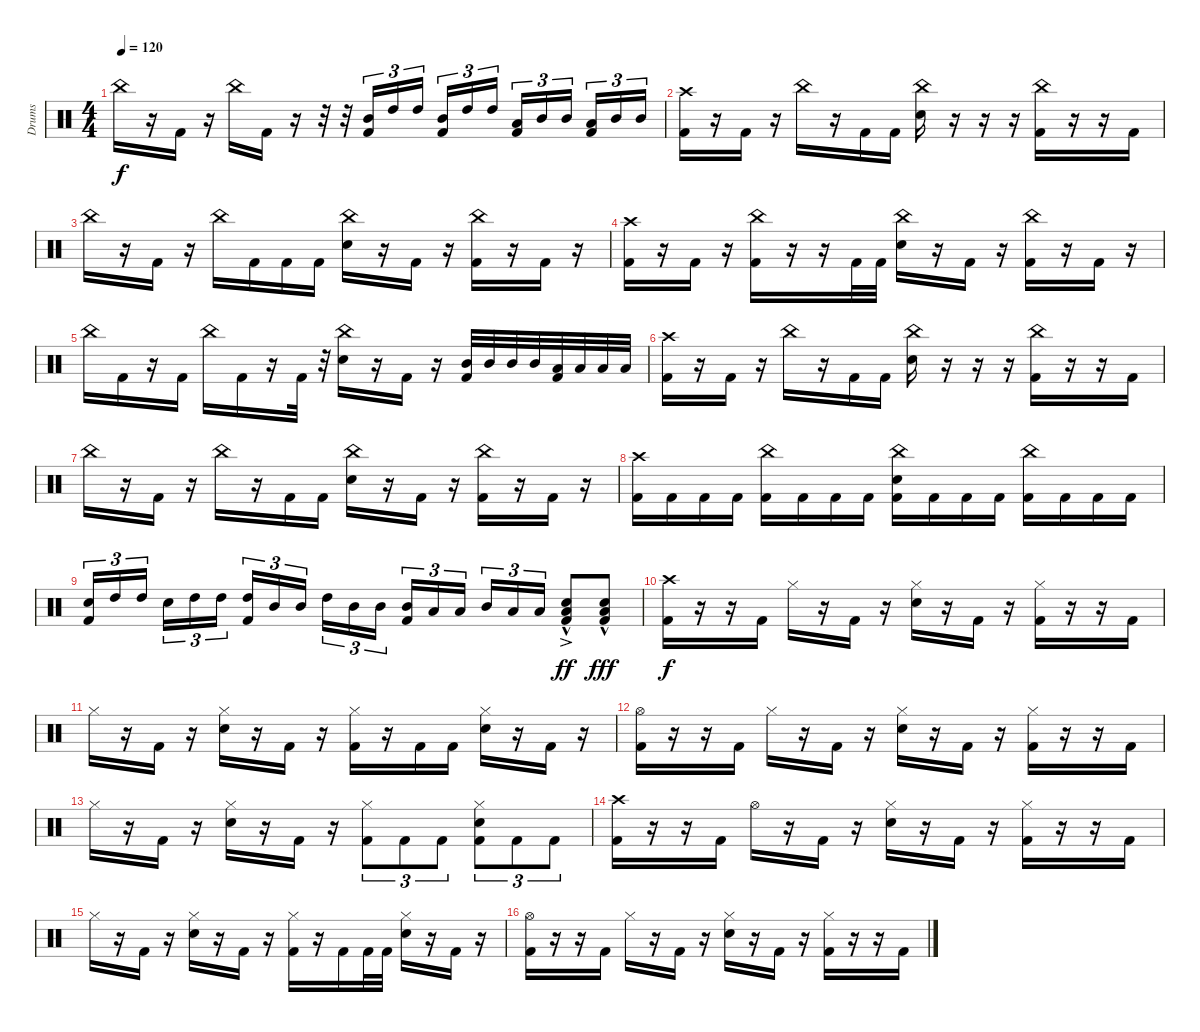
\track ("Drums" "Drums") {instrument percussion}
\staff {score}
\articulation defaults
\ts (4 4)
\tempo 120
\clef neutral
\ks c "China (hit)".16{dy f}
r.16 "Kick (hit) 2".16 r.16 "China (hit)".16 "Kick (hit) 2".16 r.16 r.32 r.32 ("Mid Tom (hit)" "Kick (hit) 2").16{tu (3 2)} "High Tom (hit)".16{tu (3 2)} "High Tom (hit)".16{tu (3 2) beam splitsecondary} ("Mid Tom (hit)" "Kick (hit) 2").16{tu (3 2)} "High Tom (hit)".16{tu (3 2)} "High Tom (hit)".16{tu (3 2)} ("Low Tom (hit)" "Kick (hit) 2").16{tu (3 2)} "Mid Tom (hit)".16{tu (3 2)} "Mid Tom (hit)".16{tu (3 2) beam splitsecondary} ("Low Tom (hit)" "Kick (hit) 2").16{tu (3 2)} "Mid Tom (hit)".16{tu (3 2)} "Mid Tom (hit)".16{tu (3 2)} |
("Crash high (hit)" "Kick (hit) 2").16 r.16 "Kick (hit) 2".16 r.16 "China (hit)".16 r.16 "Kick (hit) 2".16 "Kick (hit) 2".16 ("China (hit)" "Snare (hit) 2").16 r.16 r.16 r.16 ("China (hit)" "Kick (hit) 2").16 r.16 r.16 "Kick (hit) 2".16 |
"China (hit)".16 r.16 "Kick (hit) 2".16 r.16 "China (hit)".16 "Kick (hit) 2".16 "Kick (hit) 2".16 "Kick (hit) 2".16 ("China (hit)" "Snare (hit) 2").16 r.16 "Kick (hit) 2".16 r.16 ("China (hit)" "Kick (hit) 2").16 r.16 "Kick (hit) 2".16 r.16 |
("Crash high (hit)" "Kick (hit) 2").16 r.16 "Kick (hit) 2".16 r.16 ("China (hit)" "Kick (hit) 2").16 r.16 r.16 "Kick (hit) 2".32 "Kick (hit) 2".32 ("China (hit)" "Snare (hit) 2").16 r.16 "Kick (hit) 2".16 r.16 ("China (hit)" "Kick (hit) 2").16 r.16 "Kick (hit) 2".16 r.16 |
"China (hit)".16 "Kick (hit) 2".16 r.16 "Kick (hit) 2".16 "China (hit)".16 "Kick (hit) 2".16 r.16 "Kick (hit) 2".32 r.32 ("China (hit)" "Snare (hit) 2").16 r.16 "Kick (hit) 2".16 r.16 ("Mid Tom (hit)" "Kick (hit) 2").32 "Mid Tom (hit)".32 "Mid Tom (hit)".32 "Mid Tom (hit)".32 ("Low Tom (hit)" "Kick (hit) 2").32 "Low Tom (hit)".32 "Low Tom (hit)".32 "Low Tom (hit)".32 |
("Crash high (hit)" "Kick (hit) 2").16 r.16 "Kick (hit) 2".16 r.16 "China (hit)".16 r.16 "Kick (hit) 2".16 "Kick (hit) 2".16 ("China (hit)" "Snare (hit) 2").16 r.16 r.16 r.16 ("China (hit)" "Kick (hit) 2").16 r.16 r.16 "Kick (hit) 2".16 |
"China (hit)".16 r.16 "Kick (hit) 2".16 r.16 "China (hit)".16 r.16 "Kick (hit) 2".16 "Kick (hit) 2".16 ("China (hit)" "Snare (hit) 2").16 r.16 "Kick (hit) 2".16 r.16 ("China (hit)" "Kick (hit) 2").16 r.16 "Kick (hit) 2".16 r.16 |
("Crash high (hit)" "Kick (hit) 2").16 "Kick (hit) 2".16 "Kick (hit) 2".16 "Kick (hit) 2".16 ("China (hit)" "Kick (hit) 2").16 "Kick (hit) 2".16 "Kick (hit) 2".16 "Kick (hit) 2".16 ("China (hit)" "Snare (hit) 2" "Kick (hit) 2").16 "Kick (hit) 2".16 "Kick (hit) 2".16 "Kick (hit) 2".16 ("China (hit)" "Kick (hit) 2").16 "Kick (hit) 2".16 "Kick (hit) 2".16 "Kick (hit) 2".16 |
("Snare (hit) 2" "Kick (hit) 2").16{tu (3 2)} "High Tom (hit)".16{tu (3 2)} "High Tom (hit)".16{tu (3 2) beam splitsecondary} "Snare (hit) 2".16{tu (3 2)} "High Tom (hit)".16{tu (3 2)} "High Tom (hit)".16{tu (3 2)} ("High Tom (hit)" "Kick (hit) 2").16{tu (3 2)} "Mid Tom (hit)".16{tu (3 2)} "Mid Tom (hit)".16{tu (3 2) beam splitsecondary} "High Tom (hit)".16{tu (3 2)} "Mid Tom (hit)".16{tu (3 2)} "Mid Tom (hit)".16{tu (3 2)} ("Mid Tom (hit)" "Kick (hit) 2").16{tu (3 2)} "Low Tom (hit)".16{tu (3 2)} "Low Tom (hit)".16{tu (3 2) beam splitsecondary} "Mid Tom (hit)".16{tu (3 2)} "Low Tom (hit)".16{tu (3 2)} "Low Tom (hit)".16{tu (3 2)} ("Low Tom (hit)"{hac} "Snare (hit) 2"{ac} "Kick (hit) 2").8{dy ff} ("Low Tom (hit)"{hac} "Snare (hit) 2"{hac} "Kick (hit) 2").8{dy fff} |
("Crash high (hit)" "Kick (hit) 2").16{dy f} r.16 r.16 "Kick (hit) 2".16 "Hi-Hat (closed)".16 r.16 "Kick (hit) 2".16 r.16 ("Hi-Hat (closed)" "Snare (hit) 2").16 r.16 "Kick (hit) 2".16 r.16 ("Hi-Hat (closed)" "Kick (hit) 2").16 r.16 r.16 "Kick (hit) 2".16 |
"Hi-Hat (closed)".16 r.16 "Kick (hit) 2".16 r.16 ("Hi-Hat (closed)" "Snare (hit) 2").16 r.16 "Kick (hit) 2".16 r.16 ("Hi-Hat (closed)" "Kick (hit) 2").16 r.16 "Kick (hit) 2".16 "Kick (hit) 2".16 ("Hi-Hat (closed)" "Snare (hit) 2").16 r.16 "Kick (hit) 2".16 r.16 |
("Hi-Hat (open)" "Kick (hit) 2").16 r.16 r.16 "Kick (hit) 2".16 "Hi-Hat (closed)".16 r.16 "Kick (hit) 2".16 r.16 ("Hi-Hat (closed)" "Snare (hit) 2").16 r.16 "Kick (hit) 2".16 r.16 ("Hi-Hat (closed)" "Kick (hit) 2").16 r.16 r.16 "Kick (hit) 2".16 |
"Hi-Hat (closed)".16 r.16 "Kick (hit) 2".16 r.16 ("Hi-Hat (closed)" "Snare (hit) 2").16 r.16 "Kick (hit) 2".16 r.16 ("Hi-Hat (closed)" "Kick (hit) 2").8{tu (3 2)} "Kick (hit) 2".8{tu (3 2)} "Kick (hit) 2".8{tu (3 2)} ("Hi-Hat (closed)" "Snare (hit) 2" "Kick (hit) 2").8{tu (3 2)} "Kick (hit) 2".8{tu (3 2)} "Kick (hit) 2".8{tu (3 2)} |
("Crash high (hit)" "Kick (hit) 2").16 r.16 r.16 "Kick (hit) 2".16 "Hi-Hat (open)".16 r.16 "Kick (hit) 2".16 r.16 ("Hi-Hat (closed)" "Snare (hit) 2").16 r.16 "Kick (hit) 2".16 r.16 ("Hi-Hat (closed)" "Kick (hit) 2").16 r.16 r.16 "Kick (hit) 2".16 |
"Hi-Hat (closed)".16 r.16 "Kick (hit) 2".16 r.16 ("Hi-Hat (closed)" "Snare (hit) 2").16 r.16 "Kick (hit) 2".16 r.16 ("Hi-Hat (closed)" "Kick (hit) 2").16 r.16 "Kick (hit) 2".16 "Kick (hit) 2".32 "Kick (hit) 2".32 ("Hi-Hat (closed)" "Snare (hit) 2").16 r.16 "Kick (hit) 2".16 r.16 |
("Hi-Hat (open)" "Kick (hit) 2").16 r.16 r.16 "Kick (hit) 2".16 "Hi-Hat (closed)".16 r.16 "Kick (hit) 2".16 r.16 ("Hi-Hat (closed)" "Snare (hit) 2").16 r.16 "Kick (hit) 2".16 r.16 ("Hi-Hat (closed)" "Kick (hit) 2").16 r.16 r.16 "Kick (hit) 2".16
